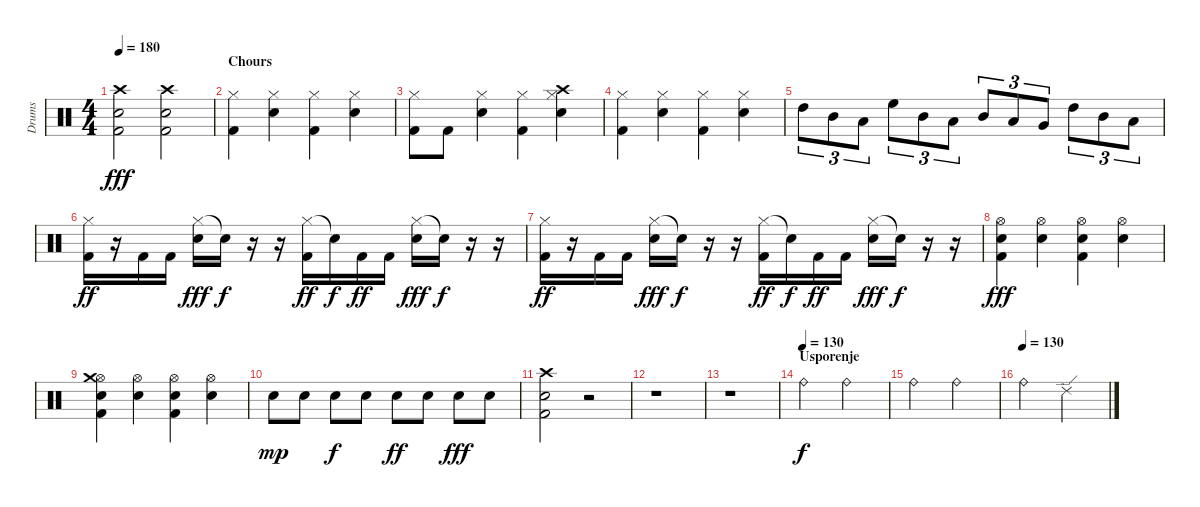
\track ("Drums" "Drums") {instrument percussion}
\staff {score}
\articulation defaults
\ts (4 4)
\tempo 180
\clef neutral
\ks c
("Crash high (hit)" "Snare (hit) 2" "Kick (hit) 2").2{dy fff} ("Crash high (hit)" "Snare (hit) 2" "Kick (hit) 2").2 |
\section ("" "Chours")
("Hi-Hat (closed)" "Kick (hit) 2").4 ("Hi-Hat (closed)" "Snare (hit) 2").4 ("Hi-Hat (closed)" "Kick (hit) 2").4 ("Hi-Hat (closed)" "Snare (hit) 2").4 |
("Hi-Hat (closed)" "Kick (hit) 2").8 "Kick (hit) 2".8 ("Hi-Hat (closed)" "Snare (hit) 2").4 ("Hi-Hat (closed)" "Kick (hit) 2").4 ("Hi-Hat (closed)" "Crash high (hit)" "Snare (hit) 2").4 |
("Hi-Hat (closed)" "Kick (hit) 2").4 ("Hi-Hat (closed)" "Snare (hit) 2").4 ("Hi-Hat (closed)" "Kick (hit) 2").4 ("Hi-Hat (closed)" "Snare (hit) 2").4 |
"High Tom (hit)".8{tu (3 2)} "Mid Tom (hit)".8{tu (3 2)} "Low Tom (hit)".8{tu (3 2)} "High Floor Tom (hit)".8{tu (3 2)} "Mid Tom (hit)".8{tu (3 2)} "Low Tom (hit)".8{tu (3 2)} "Mid Tom (hit)".8{tu (3 2)} "Low Tom (hit)".8{tu (3 2)} "Very Low Tom (hit)".8{tu (3 2)} "High Tom (hit)".8{tu (3 2)} "Mid Tom (hit)".8{tu (3 2)} "Low Tom (hit)".8{tu (3 2)} |
("Hi-Hat (closed)" "Kick (hit) 2").16{dy ff} r.16 "Kick (hit) 2".16 "Kick (hit) 2".16 ("Hi-Hat (closed)" "Snare (hit) 2").16{dy fff} "Snare (hit)"{t}.16{dy f} r.16 r.16 ("Hi-Hat (closed)" "Kick (hit) 2").16{dy ff} "Snare (hit)"{t}.16{dy f} "Kick (hit) 2".16{dy ff} "Kick (hit) 2".16 ("Hi-Hat (closed)" "Snare (hit) 2").16{dy fff} "Snare (hit)"{t}.16{dy f} r.16 r.16 |
("Hi-Hat (closed)" "Kick (hit) 2").16{dy ff} r.16 "Kick (hit) 2".16 "Kick (hit) 2".16 ("Hi-Hat (closed)" "Snare (hit) 2").16{dy fff} "Snare (hit)"{t}.16{dy f} r.16 r.16 ("Hi-Hat (closed)" "Kick (hit) 2").16{dy ff} "Snare (hit)"{t}.16{dy f} "Kick (hit) 2".16{dy ff} "Kick (hit) 2".16 ("Hi-Hat (closed)" "Snare (hit) 2").16{dy fff} "Snare (hit)"{t}.16{dy f} r.16 r.16 |
("Hi-Hat (open)" "Snare (hit) 2" "Kick (hit) 2").4{dy fff} ("Hi-Hat (open)" "Snare (hit) 2").4 ("Hi-Hat (open)" "Snare (hit) 2" "Kick (hit) 2").4 ("Hi-Hat (open)" "Snare (hit) 2").4 |
("Hi-Hat (open)" "Crash medium (hit)" "Snare (hit) 2" "Kick (hit) 2").4 ("Hi-Hat (open)" "Snare (hit) 2").4 ("Hi-Hat (open)" "Snare (hit) 2" "Kick (hit) 2").4 ("Hi-Hat (open)" "Snare (hit) 2").4 |
"Snare (hit) 2".8{dy mp} "Snare (hit) 2".8 "Snare (hit) 2".8{dy f} "Snare (hit) 2".8 "Snare (hit) 2".8{dy ff} "Snare (hit) 2".8 "Snare (hit) 2".8{dy fff} "Snare (hit) 2".8 |
("Crash high (hit)" "Snare (hit) 2" "Kick (hit) 2").2 r.2 |
r.1 |
r.1 |
\section ("" "Usporenje")
\tempo (130)
"Ride (bell)".2{dy f} "Ride (bell)".2 |
"Ride (bell)".2 "Ride (bell)".2 |
\tempo (130)
"Ride (bell)".2 "Ride (edge) 2".2
